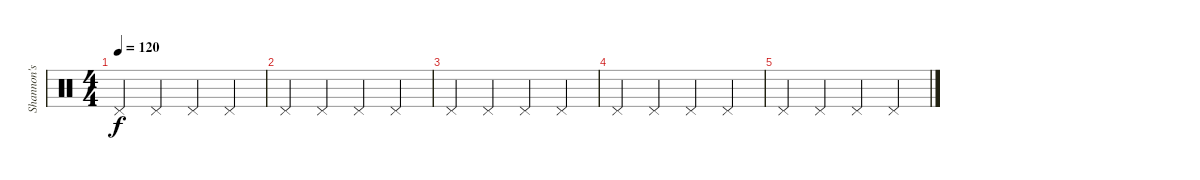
\track ("Shannon's Hi-Hat" "Shannon's ") {instrument percussion}
\staff {score}
\articulation defaults
\ts (4 4)
\tempo 120
\clef neutral
\ks c "Pedal Hi-Hat (hit)".4{dy f} "Pedal Hi-Hat (hit)".4 "Pedal Hi-Hat (hit)".4 "Pedal Hi-Hat (hit)".4
|
"Pedal Hi-Hat (hit)".4 "Pedal Hi-Hat (hit)".4 "Pedal Hi-Hat (hit)".4 "Pedal Hi-Hat (hit)".4 |
"Pedal Hi-Hat (hit)".4 "Pedal Hi-Hat (hit)".4 "Pedal Hi-Hat (hit)".4 "Pedal Hi-Hat (hit)".4 |
"Pedal Hi-Hat (hit)".4 "Pedal Hi-Hat (hit)".4 "Pedal Hi-Hat (hit)".4 "Pedal Hi-Hat (hit)".4 |
"Pedal Hi-Hat (hit)".4 "Pedal Hi-Hat (hit)".4 "Pedal Hi-Hat (hit)".4 "Pedal Hi-Hat (hit)".4
